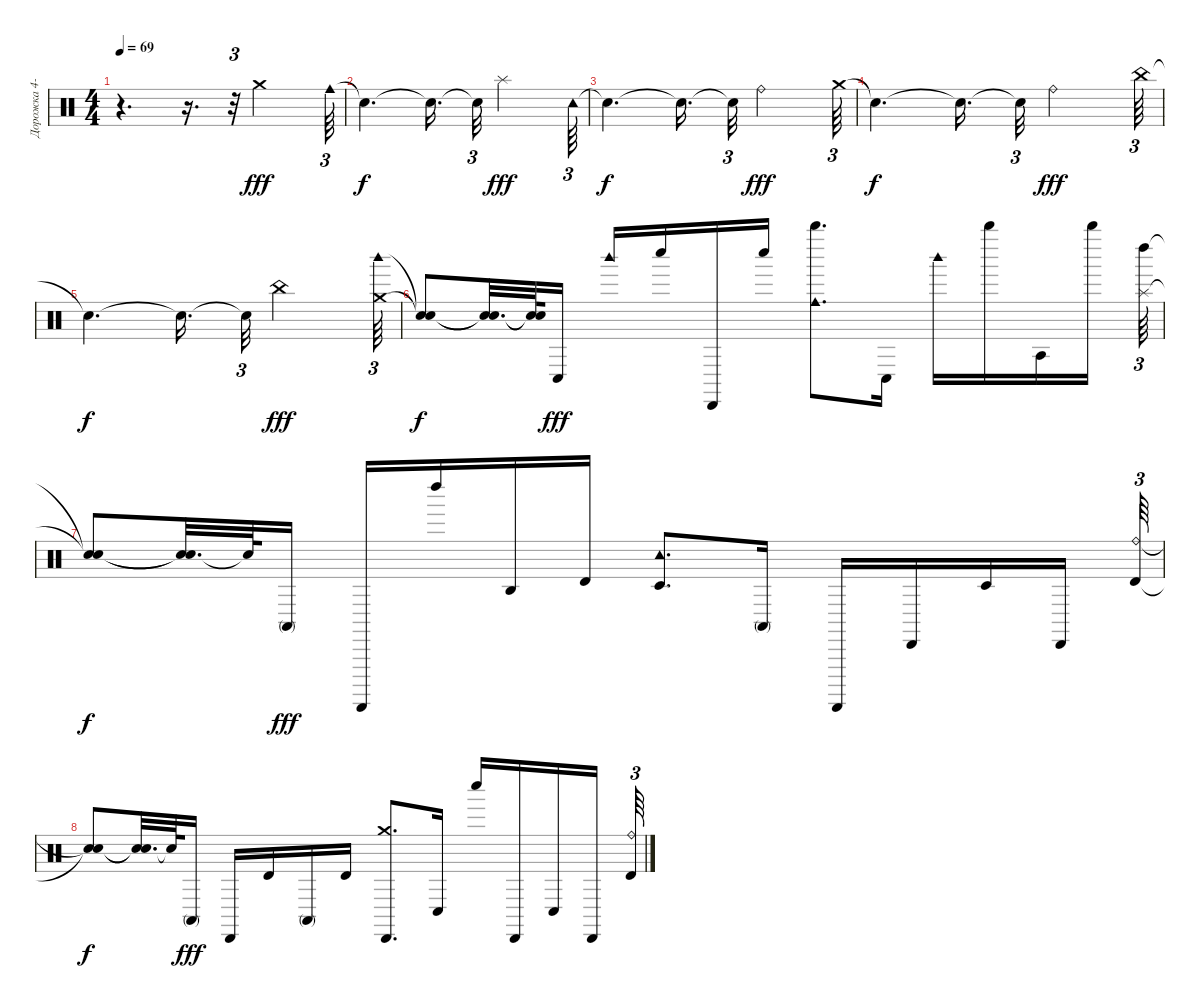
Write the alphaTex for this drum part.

\track ("Дорожка 4-10-11" "Дорожка 4-") {instrument percussion}
\staff {score}
\articulation defaults
\ts (4 4)
\tempo 69
\clef neutral
\ks c
r.4{d dy f} r.16{d} r.32{tu (3 2)} "Crash medium (hit)".2{dy fff} "Cowbell medium (hit)".64{tu (3 2)} |
"Snare (hit)"{t}.4{d dy f} "Snare (hit)"{t}.16{d} "Snare (hit)"{t}.32{tu (3 2)} "Splash (hit)".2{dy fff} "Tambourine (hit)".64{tu (3 2)} |
"Snare (hit)"{t}.4{d dy f} "Snare (hit)"{t}.16{d} "Snare (hit)"{t}.32{tu (3 2)} "Ride (bell)".2{dy fff} "Crash medium (hit)".64{tu (3 2)} |
"Snare (hit)"{t}.4{d dy f} "Snare (hit)"{t}.16{d} "Snare (hit)"{t}.32{tu (3 2)} "Ride (bell)".2{dy fff} "China (hit)".64{tu (3 2)} |
"Snare (hit)"{t}.4{d dy f} "Snare (hit)"{t}.16{d} "Snare (hit)"{t}.32{tu (3 2)} "China (hit)".2{dy fff} ("Crash medium (hit)" "Woodblock high (hit)").64{tu (3 2)} |
("Snare (hit)"{t} "Snare (hit)"{t}).8{dy f} ("Snare (hit)"{t} "Snare (hit)"{t}).32{d} ("Snare (hit)"{t} "Snare (hit)"{t}).64 "Conga low (hit)".16{dy fff} "Woodblock high (hit)".16 "Whistle low (hit)".16 "Cabasa (hit)".16 "Whistle low (hit)".16 ("Cowbell medium (hit)" "Whistle high (hit)").8{d} "Conga low (hit)".16 "Woodblock high (hit)".16 "Whistle high (hit)".16 "Agogo tow (hit)".16 "Whistle high (hit)".16 ("Splash (hit)" "Left Maraca (hit)").64{tu (3 2)} |
("Snare (hit)"{t} "Snare (hit)"{t}).8{dy f} ("Snare (hit)"{t} "Snare (hit)"{t}).32{d} "Snare (hit)"{t}.64 "Conga high (mute)".16{dy fff} "Guiro (scrap-return)".16 "Left Maraca (hit)".16 "Agogo high (hit)".16 "Timbale high (hit)".16 ("Tambourine (hit)" "Timbale low (hit)").8{d} "Conga high (mute)".16 "Guiro (scrap-return)".16 "Cabasa (hit)".16 "Timbale low (hit)".16 "Cabasa (hit)".16 ("Ride (bell)" "Timbale high (hit)").64{tu (3 2)} |
("Snare (hit)"{t} "Snare (hit)"{t}).8{dy f} ("Snare (hit)"{t} "Snare (hit)"{t}).32{d} "Snare (hit)"{t}.64 "Conga high (mute)".16{dy fff} "Cabasa (hit)".16 "Timbale high (hit)".16 "Conga high (mute)".16 "Timbale high (hit)".16 ("Crash medium (hit)" "Cabasa (hit)").8{d} "Conga low (hit)".16 "Whistle low (hit)".16 "Cabasa (hit)".16 "Conga low (hit)".16 "Cabasa (hit)".16 ("Ride (bell)" "Timbale high (hit)").64{tu (3 2)}
